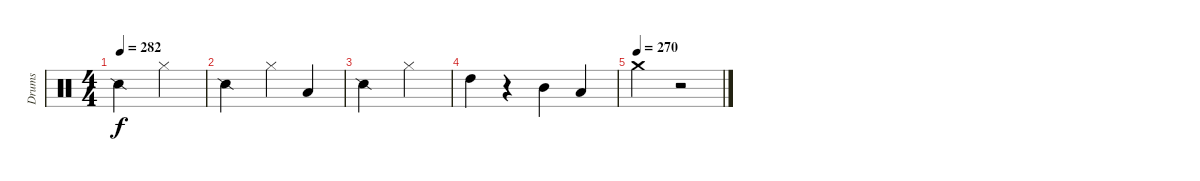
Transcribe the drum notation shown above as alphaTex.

\track ("Drums" "Drums") {instrument percussion}
\staff {score}
\articulation defaults
\ts (4 4)
\tempo 282
\clef neutral
\ks c "Snare (side stick) 2".2{dy f} "Hi-Hat (closed)".2
|
"Snare (side stick) 2".2 "Hi-Hat (closed)".4 "Low Tom (hit)".4 |
"Snare (side stick) 2".2 "Hi-Hat (closed)".2 |
"High Tom (hit)".4 r.4 "Mid Tom (hit)".4 "Low Tom (hit)".4 |
\tempo (270)
"Crash medium (hit)".2 r.2
